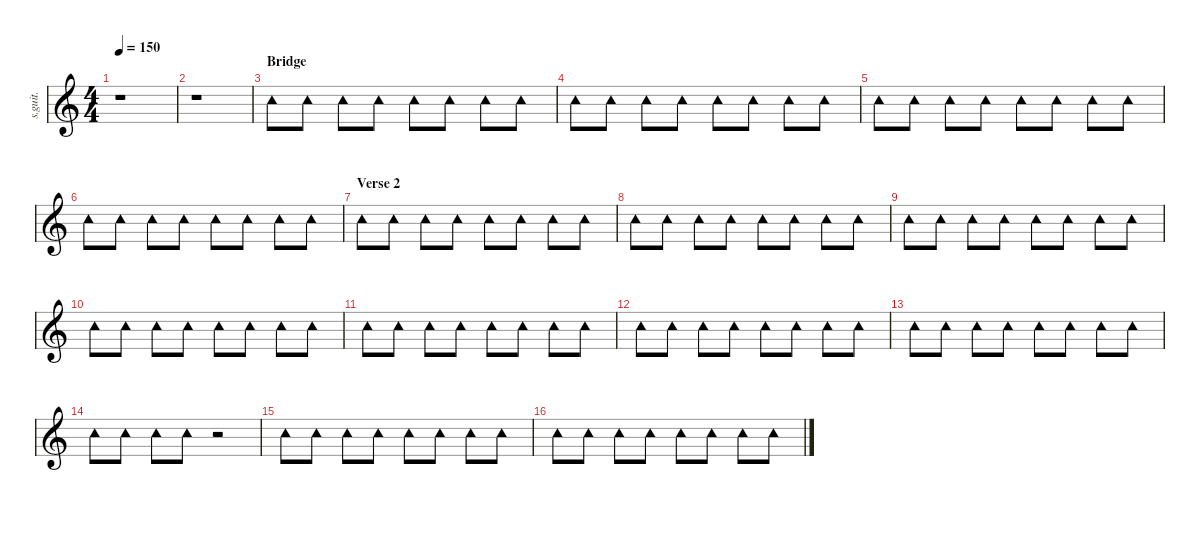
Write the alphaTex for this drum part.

\defaultSystemsLayout 4
\hideDynamics
\bracketExtendMode nobrackets
\track ("Synth Drums 2" "s.guit.") {instrument percussion}
\staff {score}
\articulation defaults
\ts (4 4)
\tempo 150
\clef g2
\ks c
r.1{dy f} |
r.1 |
\section ("" "Bridge")
"Tambourine (hit)".8{lyrics (0 "") lyrics (1 "") lyrics (2 "") lyrics (3 "") lyrics (4 "")} "Tambourine (hit)".8{lyrics (0 "") lyrics (1 "") lyrics (2 "") lyrics (3 "") lyrics (4 "")} "Tambourine (hit)".8{lyrics (0 "") lyrics (1 "") lyrics (2 "") lyrics (3 "") lyrics (4 "")} "Tambourine (hit)".8{lyrics (0 "") lyrics (1 "") lyrics (2 "") lyrics (3 "") lyrics (4 "")} "Tambourine (hit)".8{lyrics (0 "") lyrics (1 "") lyrics (2 "") lyrics (3 "") lyrics (4 "")} "Tambourine (hit)".8{lyrics (0 "") lyrics (1 "") lyrics (2 "") lyrics (3 "") lyrics (4 "")} "Tambourine (hit)".8{lyrics (0 "") lyrics (1 "") lyrics (2 "") lyrics (3 "") lyrics (4 "")} "Tambourine (hit)".8{lyrics (0 "") lyrics (1 "") lyrics (2 "") lyrics (3 "") lyrics (4 "")} |
"Tambourine (hit)".8{lyrics (0 "") lyrics (1 "") lyrics (2 "") lyrics (3 "") lyrics (4 "")} "Tambourine (hit)".8{lyrics (0 "") lyrics (1 "") lyrics (2 "") lyrics (3 "") lyrics (4 "")} "Tambourine (hit)".8{lyrics (0 "") lyrics (1 "") lyrics (2 "") lyrics (3 "") lyrics (4 "")} "Tambourine (hit)".8{lyrics (0 "") lyrics (1 "") lyrics (2 "") lyrics (3 "") lyrics (4 "")} "Tambourine (hit)".8{lyrics (0 "") lyrics (1 "") lyrics (2 "") lyrics (3 "") lyrics (4 "")} "Tambourine (hit)".8{lyrics (0 "") lyrics (1 "") lyrics (2 "") lyrics (3 "") lyrics (4 "")} "Tambourine (hit)".8{lyrics (0 "") lyrics (1 "") lyrics (2 "") lyrics (3 "") lyrics (4 "")} "Tambourine (hit)".8{lyrics (0 "") lyrics (1 "") lyrics (2 "") lyrics (3 "") lyrics (4 "")} |
"Tambourine (hit)".8{lyrics (0 "") lyrics (1 "") lyrics (2 "") lyrics (3 "") lyrics (4 "")} "Tambourine (hit)".8{lyrics (0 "") lyrics (1 "") lyrics (2 "") lyrics (3 "") lyrics (4 "")} "Tambourine (hit)".8{lyrics (0 "") lyrics (1 "") lyrics (2 "") lyrics (3 "") lyrics (4 "")} "Tambourine (hit)".8{lyrics (0 "") lyrics (1 "") lyrics (2 "") lyrics (3 "") lyrics (4 "")} "Tambourine (hit)".8{lyrics (0 "") lyrics (1 "") lyrics (2 "") lyrics (3 "") lyrics (4 "")} "Tambourine (hit)".8{lyrics (0 "") lyrics (1 "") lyrics (2 "") lyrics (3 "") lyrics (4 "")} "Tambourine (hit)".8{lyrics (0 "") lyrics (1 "") lyrics (2 "") lyrics (3 "") lyrics (4 "")} "Tambourine (hit)".8{lyrics (0 "") lyrics (1 "") lyrics (2 "") lyrics (3 "") lyrics (4 "")} |
"Tambourine (hit)".8{lyrics (0 "") lyrics (1 "") lyrics (2 "") lyrics (3 "") lyrics (4 "")} "Tambourine (hit)".8{lyrics (0 "") lyrics (1 "") lyrics (2 "") lyrics (3 "") lyrics (4 "")} "Tambourine (hit)".8{lyrics (0 "") lyrics (1 "") lyrics (2 "") lyrics (3 "") lyrics (4 "")} "Tambourine (hit)".8{lyrics (0 "") lyrics (1 "") lyrics (2 "") lyrics (3 "") lyrics (4 "")} "Tambourine (hit)".8{lyrics (0 "") lyrics (1 "") lyrics (2 "") lyrics (3 "") lyrics (4 "")} "Tambourine (hit)".8{lyrics (0 "") lyrics (1 "") lyrics (2 "") lyrics (3 "") lyrics (4 "")} "Tambourine (hit)".8{lyrics (0 "") lyrics (1 "") lyrics (2 "") lyrics (3 "") lyrics (4 "")} "Tambourine (hit)".8{lyrics (0 "") lyrics (1 "") lyrics (2 "") lyrics (3 "") lyrics (4 "")} |
\section ("" "Verse 2")
"Tambourine (hit)".8{lyrics (0 "") lyrics (1 "") lyrics (2 "") lyrics (3 "") lyrics (4 "")} "Tambourine (hit)".8{lyrics (0 "") lyrics (1 "") lyrics (2 "") lyrics (3 "") lyrics (4 "")} "Tambourine (hit)".8{lyrics (0 "") lyrics (1 "") lyrics (2 "") lyrics (3 "") lyrics (4 "")} "Tambourine (hit)".8{lyrics (0 "") lyrics (1 "") lyrics (2 "") lyrics (3 "") lyrics (4 "")} "Tambourine (hit)".8{lyrics (0 "") lyrics (1 "") lyrics (2 "") lyrics (3 "") lyrics (4 "")} "Tambourine (hit)".8{lyrics (0 "") lyrics (1 "") lyrics (2 "") lyrics (3 "") lyrics (4 "")} "Tambourine (hit)".8{lyrics (0 "") lyrics (1 "") lyrics (2 "") lyrics (3 "") lyrics (4 "")} "Tambourine (hit)".8{lyrics (0 "") lyrics (1 "") lyrics (2 "") lyrics (3 "") lyrics (4 "")} |
"Tambourine (hit)".8{lyrics (0 "") lyrics (1 "") lyrics (2 "") lyrics (3 "") lyrics (4 "")} "Tambourine (hit)".8{lyrics (0 "") lyrics (1 "") lyrics (2 "") lyrics (3 "") lyrics (4 "")} "Tambourine (hit)".8{lyrics (0 "") lyrics (1 "") lyrics (2 "") lyrics (3 "") lyrics (4 "")} "Tambourine (hit)".8{lyrics (0 "") lyrics (1 "") lyrics (2 "") lyrics (3 "") lyrics (4 "")} "Tambourine (hit)".8{lyrics (0 "") lyrics (1 "") lyrics (2 "") lyrics (3 "") lyrics (4 "")} "Tambourine (hit)".8{lyrics (0 "") lyrics (1 "") lyrics (2 "") lyrics (3 "") lyrics (4 "")} "Tambourine (hit)".8{lyrics (0 "") lyrics (1 "") lyrics (2 "") lyrics (3 "") lyrics (4 "")} "Tambourine (hit)".8{lyrics (0 "") lyrics (1 "") lyrics (2 "") lyrics (3 "") lyrics (4 "")} |
"Tambourine (hit)".8{lyrics (0 "") lyrics (1 "") lyrics (2 "") lyrics (3 "") lyrics (4 "")} "Tambourine (hit)".8{lyrics (0 "") lyrics (1 "") lyrics (2 "") lyrics (3 "") lyrics (4 "")} "Tambourine (hit)".8{lyrics (0 "") lyrics (1 "") lyrics (2 "") lyrics (3 "") lyrics (4 "")} "Tambourine (hit)".8{lyrics (0 "") lyrics (1 "") lyrics (2 "") lyrics (3 "") lyrics (4 "")} "Tambourine (hit)".8{lyrics (0 "") lyrics (1 "") lyrics (2 "") lyrics (3 "") lyrics (4 "")} "Tambourine (hit)".8{lyrics (0 "") lyrics (1 "") lyrics (2 "") lyrics (3 "") lyrics (4 "")} "Tambourine (hit)".8{lyrics (0 "") lyrics (1 "") lyrics (2 "") lyrics (3 "") lyrics (4 "")} "Tambourine (hit)".8{lyrics (0 "") lyrics (1 "") lyrics (2 "") lyrics (3 "") lyrics (4 "")} |
"Tambourine (hit)".8{lyrics (0 "") lyrics (1 "") lyrics (2 "") lyrics (3 "") lyrics (4 "")} "Tambourine (hit)".8{lyrics (0 "") lyrics (1 "") lyrics (2 "") lyrics (3 "") lyrics (4 "")} "Tambourine (hit)".8{lyrics (0 "") lyrics (1 "") lyrics (2 "") lyrics (3 "") lyrics (4 "")} "Tambourine (hit)".8{lyrics (0 "") lyrics (1 "") lyrics (2 "") lyrics (3 "") lyrics (4 "")} "Tambourine (hit)".8{lyrics (0 "") lyrics (1 "") lyrics (2 "") lyrics (3 "") lyrics (4 "")} "Tambourine (hit)".8{lyrics (0 "") lyrics (1 "") lyrics (2 "") lyrics (3 "") lyrics (4 "")} "Tambourine (hit)".8{lyrics (0 "") lyrics (1 "") lyrics (2 "") lyrics (3 "") lyrics (4 "")} "Tambourine (hit)".8{lyrics (0 "") lyrics (1 "") lyrics (2 "") lyrics (3 "") lyrics (4 "")} |
"Tambourine (hit)".8{lyrics (0 "") lyrics (1 "") lyrics (2 "") lyrics (3 "") lyrics (4 "")} "Tambourine (hit)".8{lyrics (0 "") lyrics (1 "") lyrics (2 "") lyrics (3 "") lyrics (4 "")} "Tambourine (hit)".8{lyrics (0 "") lyrics (1 "") lyrics (2 "") lyrics (3 "") lyrics (4 "")} "Tambourine (hit)".8{lyrics (0 "") lyrics (1 "") lyrics (2 "") lyrics (3 "") lyrics (4 "")} "Tambourine (hit)".8{lyrics (0 "") lyrics (1 "") lyrics (2 "") lyrics (3 "") lyrics (4 "")} "Tambourine (hit)".8{lyrics (0 "") lyrics (1 "") lyrics (2 "") lyrics (3 "") lyrics (4 "")} "Tambourine (hit)".8{lyrics (0 "") lyrics (1 "") lyrics (2 "") lyrics (3 "") lyrics (4 "")} "Tambourine (hit)".8{lyrics (0 "") lyrics (1 "") lyrics (2 "") lyrics (3 "") lyrics (4 "")} |
"Tambourine (hit)".8{lyrics (0 "") lyrics (1 "") lyrics (2 "") lyrics (3 "") lyrics (4 "")} "Tambourine (hit)".8{lyrics (0 "") lyrics (1 "") lyrics (2 "") lyrics (3 "") lyrics (4 "")} "Tambourine (hit)".8{lyrics (0 "") lyrics (1 "") lyrics (2 "") lyrics (3 "") lyrics (4 "")} "Tambourine (hit)".8{lyrics (0 "") lyrics (1 "") lyrics (2 "") lyrics (3 "") lyrics (4 "")} "Tambourine (hit)".8{lyrics (0 "") lyrics (1 "") lyrics (2 "") lyrics (3 "") lyrics (4 "")} "Tambourine (hit)".8{lyrics (0 "") lyrics (1 "") lyrics (2 "") lyrics (3 "") lyrics (4 "")} "Tambourine (hit)".8{lyrics (0 "") lyrics (1 "") lyrics (2 "") lyrics (3 "") lyrics (4 "")} "Tambourine (hit)".8{lyrics (0 "") lyrics (1 "") lyrics (2 "") lyrics (3 "") lyrics (4 "")} |
"Tambourine (hit)".8{lyrics (0 "") lyrics (1 "") lyrics (2 "") lyrics (3 "") lyrics (4 "")} "Tambourine (hit)".8{lyrics (0 "") lyrics (1 "") lyrics (2 "") lyrics (3 "") lyrics (4 "")} "Tambourine (hit)".8{lyrics (0 "") lyrics (1 "") lyrics (2 "") lyrics (3 "") lyrics (4 "")} "Tambourine (hit)".8{lyrics (0 "") lyrics (1 "") lyrics (2 "") lyrics (3 "") lyrics (4 "")} "Tambourine (hit)".8{lyrics (0 "") lyrics (1 "") lyrics (2 "") lyrics (3 "") lyrics (4 "")} "Tambourine (hit)".8{lyrics (0 "") lyrics (1 "") lyrics (2 "") lyrics (3 "") lyrics (4 "")} "Tambourine (hit)".8{lyrics (0 "") lyrics (1 "") lyrics (2 "") lyrics (3 "") lyrics (4 "")} "Tambourine (hit)".8{lyrics (0 "") lyrics (1 "") lyrics (2 "") lyrics (3 "") lyrics (4 "")} |
"Tambourine (hit)".8{lyrics (0 "") lyrics (1 "") lyrics (2 "") lyrics (3 "") lyrics (4 "")} "Tambourine (hit)".8{lyrics (0 "") lyrics (1 "") lyrics (2 "") lyrics (3 "") lyrics (4 "")} "Tambourine (hit)".8{lyrics (0 "") lyrics (1 "") lyrics (2 "") lyrics (3 "") lyrics (4 "")} "Tambourine (hit)".8{lyrics (0 "") lyrics (1 "") lyrics (2 "") lyrics (3 "") lyrics (4 "")} r.2 |
"Tambourine (hit)".8{lyrics (0 "") lyrics (1 "") lyrics (2 "") lyrics (3 "") lyrics (4 "")} "Tambourine (hit)".8{lyrics (0 "") lyrics (1 "") lyrics (2 "") lyrics (3 "") lyrics (4 "")} "Tambourine (hit)".8{lyrics (0 "") lyrics (1 "") lyrics (2 "") lyrics (3 "") lyrics (4 "")} "Tambourine (hit)".8{lyrics (0 "") lyrics (1 "") lyrics (2 "") lyrics (3 "") lyrics (4 "")} "Tambourine (hit)".8{lyrics (0 "") lyrics (1 "") lyrics (2 "") lyrics (3 "") lyrics (4 "")} "Tambourine (hit)".8{lyrics (0 "") lyrics (1 "") lyrics (2 "") lyrics (3 "") lyrics (4 "")} "Tambourine (hit)".8{lyrics (0 "") lyrics (1 "") lyrics (2 "") lyrics (3 "") lyrics (4 "")} "Tambourine (hit)".8{lyrics (0 "") lyrics (1 "") lyrics (2 "") lyrics (3 "") lyrics (4 "")} |
"Tambourine (hit)".8{lyrics (0 "") lyrics (1 "") lyrics (2 "") lyrics (3 "") lyrics (4 "")} "Tambourine (hit)".8{lyrics (0 "") lyrics (1 "") lyrics (2 "") lyrics (3 "") lyrics (4 "")} "Tambourine (hit)".8{lyrics (0 "") lyrics (1 "") lyrics (2 "") lyrics (3 "") lyrics (4 "")} "Tambourine (hit)".8{lyrics (0 "") lyrics (1 "") lyrics (2 "") lyrics (3 "") lyrics (4 "")} "Tambourine (hit)".8{lyrics (0 "") lyrics (1 "") lyrics (2 "") lyrics (3 "") lyrics (4 "")} "Tambourine (hit)".8{lyrics (0 "") lyrics (1 "") lyrics (2 "") lyrics (3 "") lyrics (4 "")} "Tambourine (hit)".8{lyrics (0 "") lyrics (1 "") lyrics (2 "") lyrics (3 "") lyrics (4 "")} "Tambourine (hit)".8{lyrics (0 "") lyrics (1 "") lyrics (2 "") lyrics (3 "") lyrics (4 "")}
